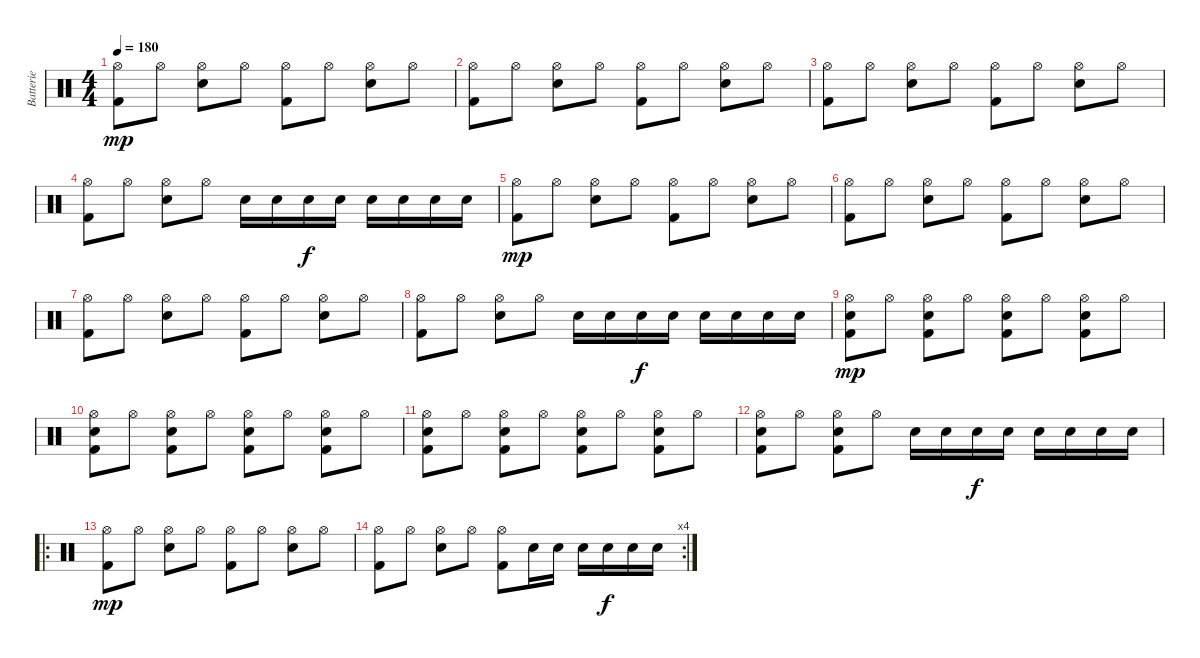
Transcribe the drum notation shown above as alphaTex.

\track ("Batterie" "Batterie") {instrument percussion}
\staff {score}
\articulation defaults
\ts (4 4)
\tempo 180
\clef neutral
\ks c
("Hi-Hat (open)" "Kick (hit) 2").8{dy mp} "Hi-Hat (open)".8 ("Hi-Hat (open)" "Electric Snare (hit)").8 "Hi-Hat (open)".8 ("Hi-Hat (open)" "Kick (hit) 2").8 "Hi-Hat (open)".8 ("Hi-Hat (open)" "Electric Snare (hit)").8 "Hi-Hat (open)".8 |
("Hi-Hat (open)" "Kick (hit) 2").8 "Hi-Hat (open)".8 ("Hi-Hat (open)" "Electric Snare (hit)").8 "Hi-Hat (open)".8 ("Hi-Hat (open)" "Kick (hit) 2").8 "Hi-Hat (open)".8 ("Hi-Hat (open)" "Electric Snare (hit)").8 "Hi-Hat (open)".8 |
("Hi-Hat (open)" "Kick (hit) 2").8 "Hi-Hat (open)".8 ("Hi-Hat (open)" "Electric Snare (hit)").8 "Hi-Hat (open)".8 ("Hi-Hat (open)" "Kick (hit) 2").8 "Hi-Hat (open)".8 ("Hi-Hat (open)" "Electric Snare (hit)").8 "Hi-Hat (open)".8 |
("Hi-Hat (open)" "Kick (hit) 2").8 "Hi-Hat (open)".8 ("Hi-Hat (open)" "Electric Snare (hit)").8 "Hi-Hat (open)".8 "Electric Snare (hit)".16 "Electric Snare (hit)".16 "Electric Snare (hit)".16{dy f} "Electric Snare (hit)".16 "Electric Snare (hit)".16 "Electric Snare (hit)".16 "Electric Snare (hit)".16 "Electric Snare (hit)".16 |
("Hi-Hat (open)" "Kick (hit) 2").8{dy mp} "Hi-Hat (open)".8 ("Hi-Hat (open)" "Electric Snare (hit)").8 "Hi-Hat (open)".8 ("Hi-Hat (open)" "Kick (hit) 2").8 "Hi-Hat (open)".8 ("Hi-Hat (open)" "Electric Snare (hit)").8 "Hi-Hat (open)".8 |
("Hi-Hat (open)" "Kick (hit) 2").8 "Hi-Hat (open)".8 ("Hi-Hat (open)" "Electric Snare (hit)").8 "Hi-Hat (open)".8 ("Hi-Hat (open)" "Kick (hit) 2").8 "Hi-Hat (open)".8 ("Hi-Hat (open)" "Electric Snare (hit)").8 "Hi-Hat (open)".8 |
("Hi-Hat (open)" "Kick (hit) 2").8 "Hi-Hat (open)".8 ("Hi-Hat (open)" "Electric Snare (hit)").8 "Hi-Hat (open)".8 ("Hi-Hat (open)" "Kick (hit) 2").8 "Hi-Hat (open)".8 ("Hi-Hat (open)" "Electric Snare (hit)").8 "Hi-Hat (open)".8 |
("Hi-Hat (open)" "Kick (hit) 2").8 "Hi-Hat (open)".8 ("Hi-Hat (open)" "Electric Snare (hit)").8 "Hi-Hat (open)".8 "Electric Snare (hit)".16 "Electric Snare (hit)".16 "Electric Snare (hit)".16{dy f} "Electric Snare (hit)".16 "Electric Snare (hit)".16 "Electric Snare (hit)".16 "Electric Snare (hit)".16 "Electric Snare (hit)".16 |
("Hi-Hat (open)" "Kick (hit) 2" "Electric Snare (hit)").8{dy mp} "Hi-Hat (open)".8 ("Hi-Hat (open)" "Kick (hit) 2" "Electric Snare (hit)").8 "Hi-Hat (open)".8 ("Hi-Hat (open)" "Kick (hit) 2" "Electric Snare (hit)").8 "Hi-Hat (open)".8 ("Hi-Hat (open)" "Kick (hit) 2" "Electric Snare (hit)").8 "Hi-Hat (open)".8 |
("Hi-Hat (open)" "Kick (hit) 2" "Electric Snare (hit)").8 "Hi-Hat (open)".8 ("Hi-Hat (open)" "Electric Snare (hit)" "Kick (hit) 2").8 "Hi-Hat (open)".8 ("Hi-Hat (open)" "Kick (hit) 2" "Electric Snare (hit)").8 "Hi-Hat (open)".8 ("Hi-Hat (open)" "Electric Snare (hit)" "Kick (hit) 2").8 "Hi-Hat (open)".8 |
("Hi-Hat (open)" "Kick (hit) 2" "Electric Snare (hit)").8 "Hi-Hat (open)".8 ("Hi-Hat (open)" "Electric Snare (hit)" "Kick (hit) 2").8 "Hi-Hat (open)".8 ("Hi-Hat (open)" "Kick (hit) 2" "Electric Snare (hit)").8 "Hi-Hat (open)".8 ("Hi-Hat (open)" "Electric Snare (hit)" "Kick (hit) 2").8 "Hi-Hat (open)".8 |
("Hi-Hat (open)" "Kick (hit) 2" "Electric Snare (hit)").8 "Hi-Hat (open)".8 ("Hi-Hat (open)" "Electric Snare (hit)" "Kick (hit) 2").8 "Hi-Hat (open)".8 "Electric Snare (hit)".16 "Electric Snare (hit)".16 "Electric Snare (hit)".16{dy f} "Electric Snare (hit)".16 "Electric Snare (hit)".16 "Electric Snare (hit)".16 "Electric Snare (hit)".16 "Electric Snare (hit)".16 |
\ro
("Hi-Hat (open)" "Kick (hit) 2").8{dy mp} "Hi-Hat (open)".8 ("Hi-Hat (open)" "Electric Snare (hit)").8 "Hi-Hat (open)".8 ("Hi-Hat (open)" "Kick (hit) 2").8 "Hi-Hat (open)".8 ("Hi-Hat (open)" "Electric Snare (hit)").8 "Hi-Hat (open)".8 |
\rc 4
("Hi-Hat (open)" "Kick (hit) 2").8 "Hi-Hat (open)".8 ("Hi-Hat (open)" "Electric Snare (hit)").8 "Hi-Hat (open)".8 ("Hi-Hat (open)" "Kick (hit) 2").8 "Electric Snare (hit)".16 "Electric Snare (hit)".16 "Electric Snare (hit)".16 "Electric Snare (hit)".16{dy f} "Electric Snare (hit)".16 "Electric Snare (hit)".16
